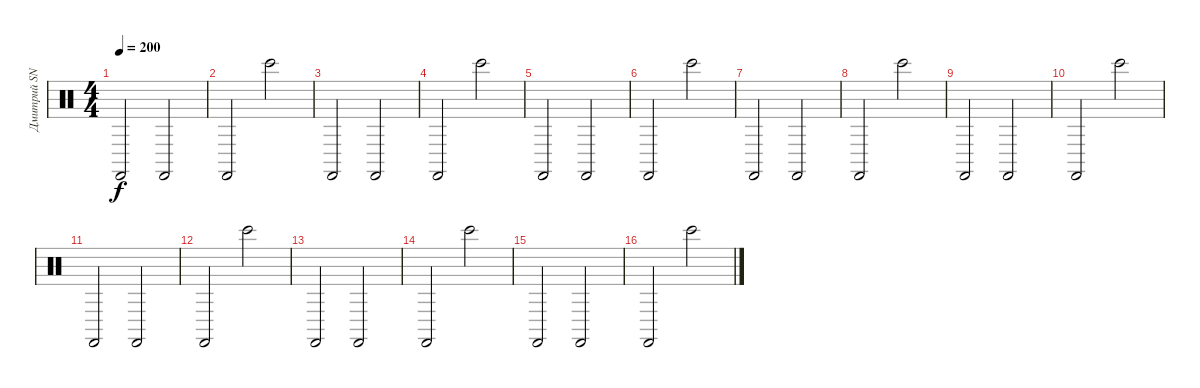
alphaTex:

\track ("Дмитрий SNAKE Хакимов" "Дмитрий SN") {instrument percussion}
\staff {score}
\articulation defaults
\ts (4 4)
\tempo 200
\clef neutral
\ks c "Castanets (hit)".2{dy f} "Castanets (hit)".2
|
"Castanets (hit)".2 "Bongo High (hit)".2 |
"Castanets (hit)".2 "Castanets (hit)".2 |
"Castanets (hit)".2 "Bongo High (hit)".2 |
"Castanets (hit)".2 "Castanets (hit)".2 |
"Castanets (hit)".2 "Bongo High (hit)".2 |
"Castanets (hit)".2 "Castanets (hit)".2 |
"Castanets (hit)".2 "Bongo High (hit)".2 |
"Castanets (hit)".2 "Castanets (hit)".2 |
"Castanets (hit)".2 "Bongo High (hit)".2 |
"Castanets (hit)".2 "Castanets (hit)".2 |
"Castanets (hit)".2 "Bongo High (hit)".2 |
"Castanets (hit)".2 "Castanets (hit)".2 |
"Castanets (hit)".2 "Bongo High (hit)".2 |
"Castanets (hit)".2 "Castanets (hit)".2 |
"Castanets (hit)".2 "Bongo High (hit)".2
